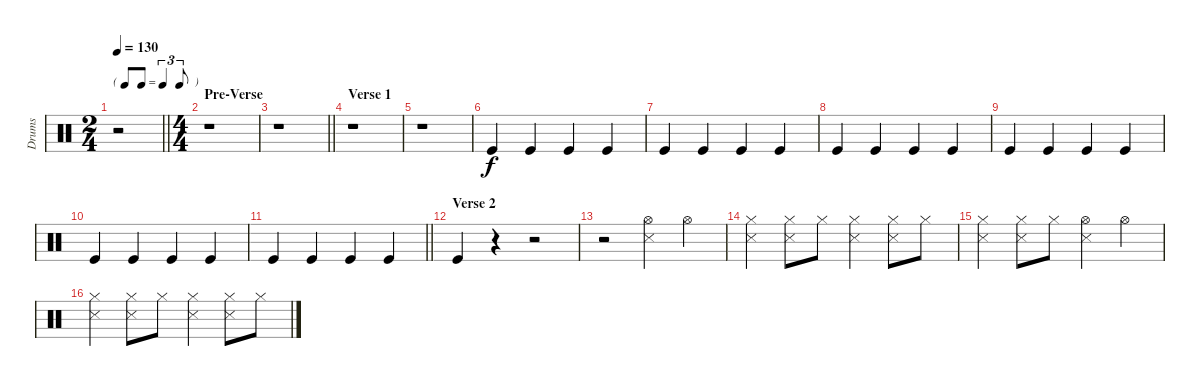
\track ("Drums" "Drums") {instrument percussion}
\staff {score}
\articulation defaults
\ts (2 4)
\tf triplet8th
\tempo 130
\clef neutral
\barLineRight lightlight
\ks c
r.2{dy f} |
\ts (4 4)
\section ("" "Pre-Verse")
r.1 |
\barLineRight lightlight
r.1 |
\section ("" "Verse 1")
r.1 |
r.1 |
"Kick (hit)".4 "Kick (hit)".4 "Kick (hit)".4 "Kick (hit)".4 |
"Kick (hit)".4 "Kick (hit)".4 "Kick (hit)".4 "Kick (hit)".4 |
"Kick (hit)".4 "Kick (hit)".4 "Kick (hit)".4 "Kick (hit)".4 |
"Kick (hit)".4 "Kick (hit)".4 "Kick (hit)".4 "Kick (hit)".4 |
"Kick (hit)".4 "Kick (hit)".4 "Kick (hit)".4 "Kick (hit)".4 |
\barLineRight lightlight "Kick (hit)".4 "Kick (hit)".4 "Kick (hit)".4 "Kick (hit)".4
|
\section ("" "Verse 2")
"Kick (hit)".4 r.4 r.2 |
r.2 ("Snare (side stick) 3" "Hi-Hat (open)").4 "Hi-Hat (open)".4 |
("Hi-Hat (closed)" "Snare (side stick) 3").4 ("Hi-Hat (closed)" "Snare (side stick) 3").8 "Hi-Hat (closed)".8 ("Hi-Hat (closed)" "Snare (side stick) 3").4 ("Hi-Hat (closed)" "Snare (side stick) 3").8 "Hi-Hat (closed)".8 |
("Hi-Hat (closed)" "Snare (side stick) 3").4 ("Hi-Hat (closed)" "Snare (side stick) 3").8 "Hi-Hat (closed)".8 ("Snare (side stick) 3" "Hi-Hat (open)").4 "Hi-Hat (open)".4 |
("Hi-Hat (closed)" "Snare (side stick) 3").4 ("Hi-Hat (closed)" "Snare (side stick) 3").8 "Hi-Hat (closed)".8 ("Hi-Hat (closed)" "Snare (side stick) 3").4 ("Hi-Hat (closed)" "Snare (side stick) 3").8 "Hi-Hat (closed)".8
